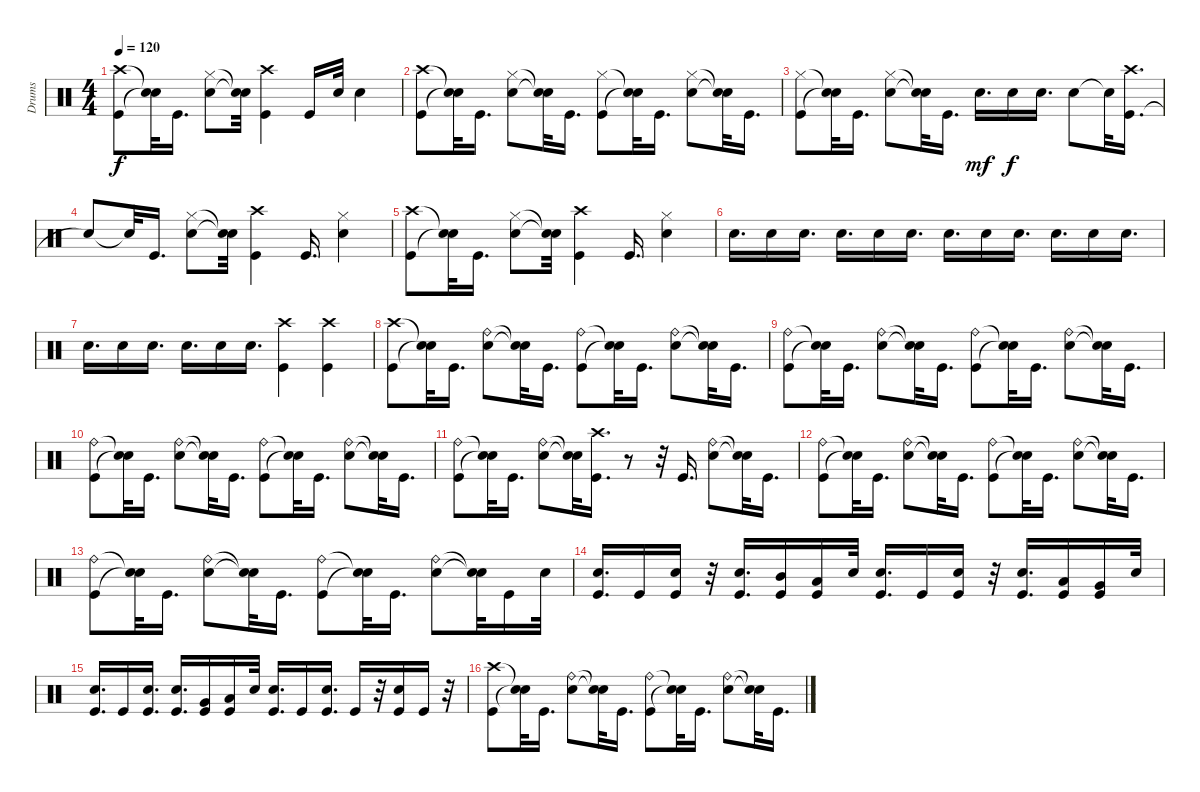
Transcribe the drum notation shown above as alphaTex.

\track ("Drums" "Drums") {instrument percussion}
\staff {score}
\articulation defaults
\ts (4 4)
\tempo 120
\clef neutral
\ks c
("Kick (hit)" "Crash high (hit)").8{dy f} ("Snare (hit)"{t} "Snare (hit)"{t}).32 "Kick (hit)".16{d} ("Hi-Hat (closed)" "Snare (hit) 2").8 ("Snare (hit)"{t} "Snare (hit)"{t}).32 ("Kick (hit)" "Crash high (hit)").4 "Kick (hit)".16 "Snare (hit) 2".32 "Snare (hit) 2".4 |
("Crash high (hit)" "Kick (hit)").8 ("Snare (hit)"{t} "Snare (hit)"{t}).32 "Kick (hit)".16{d} ("Snare (hit) 2" "Hi-Hat (closed)").8 ("Snare (hit)"{t} "Snare (hit)"{t}).32 "Kick (hit)".16{d} ("Hi-Hat (closed)" "Kick (hit)").8 ("Snare (hit)"{t} "Snare (hit)"{t}).32 "Kick (hit)".16{d} ("Hi-Hat (closed)" "Snare (hit) 2").8 ("Snare (hit)"{t} "Snare (hit)"{t}).32 "Kick (hit)".16{d} |
("Kick (hit)" "Hi-Hat (closed)").8 ("Snare (hit)"{t} "Snare (hit)"{t}).32 "Kick (hit)".16{d} ("Snare (hit) 2" "Hi-Hat (closed)").8 ("Snare (hit)"{t} "Snare (hit)"{t}).32 "Kick (hit)".16{d} "Snare (hit) 2".16{d dy mf} "Snare (hit) 2".16{dy f} "Snare (hit) 2".16{d} "Snare (hit) 2".8 "Snare (hit)"{t}.32 ("Kick (hit)" "Crash high (hit)").16{d} |
"Snare (hit)"{t}.8 "Snare (hit)"{t}.32 "Kick (hit)".16{d} ("Hi-Hat (closed)" "Snare (hit) 2").8 ("Snare (hit)"{t} "Snare (hit)"{t}).32 ("Kick (hit)" "Crash high (hit)").4 "Kick (hit)".16{d} ("Snare (hit) 2" "Hi-Hat (closed)").4 |
("Kick (hit)" "Crash high (hit)").8 ("Snare (hit)"{t} "Snare (hit)"{t}).32 "Kick (hit)".16{d} ("Hi-Hat (closed)" "Snare (hit) 2").8 ("Snare (hit)"{t} "Snare (hit)"{t}).32 ("Crash high (hit)" "Kick (hit)").4 "Kick (hit)".16{d} ("Snare (hit) 2" "Hi-Hat (closed)").4 |
"Snare (hit) 2".16{d} "Snare (hit) 2".16 "Snare (hit) 2".16{d} "Snare (hit) 2".16{d} "Snare (hit) 2".16 "Snare (hit) 2".16{d} "Snare (hit) 2".16{d} "Snare (hit) 2".16 "Snare (hit) 2".16{d} "Snare (hit) 2".16{d} "Snare (hit) 2".16 "Snare (hit) 2".16{d} |
"Snare (hit) 2".16{d} "Snare (hit) 2".16 "Snare (hit) 2".16{d} "Snare (hit) 2".16{d} "Snare (hit) 2".16 "Snare (hit) 2".16{d} ("Crash high (hit)" "Kick (hit)").4 ("Kick (hit)" "Crash high (hit)").4 |
("Kick (hit)" "Crash high (hit)").8 ("Snare (hit)"{t} "Snare (hit)"{t}).32 "Kick (hit)".16{d} ("Snare (hit) 2" "Ride (bell)").8 ("Snare (hit)"{t} "Snare (hit)"{t}).32 "Kick (hit)".16{d} ("Ride (bell)" "Kick (hit)").8 ("Snare (hit)"{t} "Snare (hit)"{t}).32 "Kick (hit)".16{d} ("Ride (bell)" "Snare (hit) 2").8 ("Snare (hit)"{t} "Snare (hit)"{t}).32 "Kick (hit)".16{d} |
("Kick (hit)" "Ride (bell)").8 ("Snare (hit)"{t} "Snare (hit)"{t}).32 "Kick (hit)".16{d} ("Ride (bell)" "Snare (hit) 2").8 ("Snare (hit)"{t} "Snare (hit)"{t}).32 "Kick (hit)".16{d} ("Ride (bell)" "Kick (hit)").8 ("Snare (hit)"{t} "Snare (hit)"{t}).32 "Kick (hit)".16{d} ("Ride (bell)" "Snare (hit) 2").8 ("Snare (hit)"{t} "Snare (hit)"{t}).32 "Kick (hit)".16{d} |
("Ride (bell)" "Kick (hit)").8 ("Snare (hit)"{t} "Snare (hit)"{t}).32 "Kick (hit)".16{d} ("Snare (hit) 2" "Ride (bell)").8 ("Snare (hit)"{t} "Snare (hit)"{t}).32 "Kick (hit)".16{d} ("Ride (bell)" "Kick (hit)").8 ("Snare (hit)"{t} "Snare (hit)"{t}).32 "Kick (hit)".16{d} ("Ride (bell)" "Snare (hit) 2").8 ("Snare (hit)"{t} "Snare (hit)"{t}).32 "Kick (hit)".16{d} |
("Kick (hit)" "Ride (bell)").8 ("Snare (hit)"{t} "Snare (hit)"{t}).32 "Kick (hit)".16{d} ("Snare (hit) 2" "Ride (bell)").8 ("Snare (hit)"{t} "Snare (hit)"{t}).32 ("Crash high (hit)" "Kick (hit)").16{d} r.8 r.32 "Kick (hit)".16{d} ("Snare (hit) 2" "Ride (bell)").8 ("Snare (hit)"{t} "Snare (hit)"{t}).32 "Kick (hit)".16{d} |
("Ride (bell)" "Kick (hit)").8 ("Snare (hit)"{t} "Snare (hit)"{t}).32 "Kick (hit)".16{d} ("Ride (bell)" "Snare (hit) 2").8 ("Snare (hit)"{t} "Snare (hit)"{t}).32 "Kick (hit)".16{d} ("Kick (hit)" "Ride (bell)").8 ("Snare (hit)"{t} "Snare (hit)"{t}).32 "Kick (hit)".16{d} ("Snare (hit) 2" "Ride (bell)").8 ("Snare (hit)"{t} "Snare (hit)"{t}).32 "Kick (hit)".16{d} |
("Ride (bell)" "Kick (hit)").8 ("Snare (hit)"{t} "Snare (hit)"{t}).32 "Kick (hit)".16{d} ("Ride (bell)" "Snare (hit) 2").8 ("Snare (hit)"{t} "Snare (hit)"{t}).32 "Kick (hit)".16{d} ("Ride (bell)" "Kick (hit)").8 ("Snare (hit)"{t} "Snare (hit)"{t}).32 "Kick (hit)".16{d} ("Snare (hit) 2" "Ride (bell)").8 ("Snare (hit)"{t} "Snare (hit)"{t}).32 "Kick (hit)".16 "Snare (hit) 2".32 |
("Kick (hit)" "Snare (hit) 2").16{d} "Kick (hit)".16 ("Snare (hit) 2" "Kick (hit)").16 r.32 ("Snare (hit) 2" "Kick (hit)").16{d} ("Mid Tom (hit)" "Kick (hit)").16 ("Kick (hit)" "Low Tom (hit)").16 "Snare (hit) 2".32 ("Kick (hit)" "Snare (hit) 2").16{d} "Kick (hit)".16 ("Kick (hit)" "Snare (hit) 2").16 r.32 ("Kick (hit)" "Snare (hit) 2").16{d} ("Kick (hit)" "Low Tom (hit)").16 ("Kick (hit)" "Very Low Tom (hit)").16 "Snare (hit) 2".32 |
("Snare (hit) 2" "Kick (hit)").16{d} "Kick (hit)".16 ("Snare (hit) 2" "Kick (hit)").16{d} ("Snare (hit) 2" "Kick (hit)").16{d} ("Kick (hit)" "Very Low Tom (hit)").16 ("Low Floor Tom (hit)" "Kick (hit)").16 "Snare (hit) 2".32 ("Kick (hit)" "Snare (hit) 2").16{d} "Kick (hit)".16 ("Snare (hit) 2" "Kick (hit)").16{d} "Kick (hit)".16 r.32 ("Kick (hit)" "Snare (hit) 2").16 "Kick (hit)".16 r.32 |
("Kick (hit)" "Crash high (hit)").8 ("Snare (hit)"{t} "Snare (hit)"{t}).32 "Kick (hit)".16{d} ("Snare (hit) 2" "Ride (bell)").8 ("Snare (hit)"{t} "Snare (hit)"{t}).32 "Kick (hit)".16{d} ("Ride (bell)" "Kick (hit)").8 ("Snare (hit)"{t} "Snare (hit)"{t}).32 "Kick (hit)".16{d} ("Snare (hit) 2" "Ride (bell)").8 ("Snare (hit)"{t} "Snare (hit)"{t}).32 "Kick (hit)".16{d}
